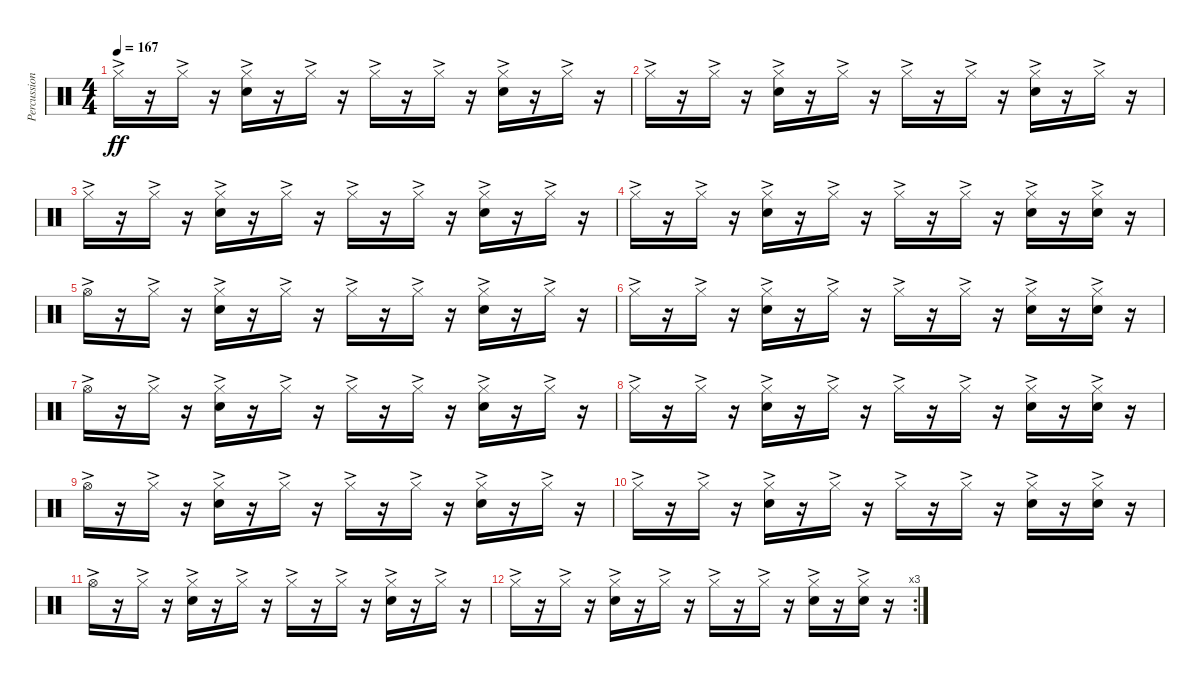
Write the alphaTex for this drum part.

\track ("Percussion" "Percussion") {instrument percussion}
\staff {score}
\articulation defaults
\ts (4 4)
\tempo 167
\clef neutral
\ks c "Hi-Hat (closed)"{ac}.16{dy ff}
r.16 "Hi-Hat (closed)"{ac}.16 r.16 ("Hi-Hat (closed)"{ac} "Snare (hit) 2"{ac}).16 r.16 "Hi-Hat (closed)"{ac}.16 r.16 "Hi-Hat (closed)"{ac}.16 r.16 "Hi-Hat (closed)"{ac}.16 r.16 ("Hi-Hat (closed)"{ac} "Snare (hit) 2"{ac}).16 r.16 "Hi-Hat (closed)"{ac}.16 r.16 |
"Hi-Hat (closed)"{ac}.16 r.16 "Hi-Hat (closed)"{ac}.16 r.16 ("Hi-Hat (closed)"{ac} "Snare (hit) 2"{ac}).16 r.16 "Hi-Hat (closed)"{ac}.16 r.16 "Hi-Hat (closed)"{ac}.16 r.16 "Hi-Hat (closed)"{ac}.16 r.16 ("Hi-Hat (closed)"{ac} "Snare (hit) 2"{ac}).16 r.16 "Hi-Hat (closed)"{ac}.16 r.16 |
"Hi-Hat (closed)"{ac}.16 r.16 "Hi-Hat (closed)"{ac}.16 r.16 ("Hi-Hat (closed)"{ac} "Snare (hit) 2"{ac}).16 r.16 "Hi-Hat (closed)"{ac}.16 r.16 "Hi-Hat (closed)"{ac}.16 r.16 "Hi-Hat (closed)"{ac}.16 r.16 ("Hi-Hat (closed)"{ac} "Snare (hit) 2"{ac}).16 r.16 "Hi-Hat (closed)"{ac}.16 r.16 |
"Hi-Hat (closed)"{ac}.16 r.16 "Hi-Hat (closed)"{ac}.16 r.16 ("Hi-Hat (closed)"{ac} "Snare (hit) 2"{ac}).16 r.16 "Hi-Hat (closed)"{ac}.16 r.16 "Hi-Hat (closed)"{ac}.16 r.16 "Hi-Hat (closed)"{ac}.16 r.16 ("Hi-Hat (closed)"{ac} "Snare (hit) 2"{ac}).16 r.16 ("Hi-Hat (closed)"{ac} "Snare (hit) 2"{ac}).16 r.16 |
"Hi-Hat (open)"{ac}.16 r.16 "Hi-Hat (closed)"{ac}.16 r.16 ("Hi-Hat (closed)"{ac} "Snare (hit) 2"{ac}).16 r.16 "Hi-Hat (closed)"{ac}.16 r.16 "Hi-Hat (closed)"{ac}.16 r.16 "Hi-Hat (closed)"{ac}.16 r.16 ("Hi-Hat (closed)"{ac} "Snare (hit) 2"{ac}).16 r.16 "Hi-Hat (closed)"{ac}.16 r.16 |
"Hi-Hat (closed)"{ac}.16 r.16 "Hi-Hat (closed)"{ac}.16 r.16 ("Hi-Hat (closed)"{ac} "Snare (hit) 2"{ac}).16 r.16 "Hi-Hat (closed)"{ac}.16 r.16 "Hi-Hat (closed)"{ac}.16 r.16 "Hi-Hat (closed)"{ac}.16 r.16 ("Hi-Hat (closed)"{ac} "Snare (hit) 2"{ac}).16 r.16 ("Hi-Hat (closed)"{ac} "Snare (hit) 2"{ac}).16 r.16 |
"Hi-Hat (open)"{ac}.16 r.16 "Hi-Hat (closed)"{ac}.16 r.16 ("Hi-Hat (closed)"{ac} "Snare (hit) 2"{ac}).16 r.16 "Hi-Hat (closed)"{ac}.16 r.16 "Hi-Hat (closed)"{ac}.16 r.16 "Hi-Hat (closed)"{ac}.16 r.16 ("Hi-Hat (closed)"{ac} "Snare (hit) 2"{ac}).16 r.16 "Hi-Hat (closed)"{ac}.16 r.16 |
"Hi-Hat (closed)"{ac}.16 r.16 "Hi-Hat (closed)"{ac}.16 r.16 ("Hi-Hat (closed)"{ac} "Snare (hit) 2"{ac}).16 r.16 "Hi-Hat (closed)"{ac}.16 r.16 "Hi-Hat (closed)"{ac}.16 r.16 "Hi-Hat (closed)"{ac}.16 r.16 ("Hi-Hat (closed)"{ac} "Snare (hit) 2"{ac}).16 r.16 ("Hi-Hat (closed)"{ac} "Snare (hit) 2"{ac}).16 r.16 |
"Hi-Hat (open)"{ac}.16 r.16 "Hi-Hat (closed)"{ac}.16 r.16 ("Hi-Hat (closed)"{ac} "Snare (hit) 2"{ac}).16 r.16 "Hi-Hat (closed)"{ac}.16 r.16 "Hi-Hat (closed)"{ac}.16 r.16 "Hi-Hat (closed)"{ac}.16 r.16 ("Hi-Hat (closed)"{ac} "Snare (hit) 2"{ac}).16 r.16 "Hi-Hat (closed)"{ac}.16 r.16 |
"Hi-Hat (closed)"{ac}.16 r.16 "Hi-Hat (closed)"{ac}.16 r.16 ("Hi-Hat (closed)"{ac} "Snare (hit) 2"{ac}).16 r.16 "Hi-Hat (closed)"{ac}.16 r.16 "Hi-Hat (closed)"{ac}.16 r.16 "Hi-Hat (closed)"{ac}.16 r.16 ("Hi-Hat (closed)"{ac} "Snare (hit) 2"{ac}).16 r.16 ("Hi-Hat (closed)"{ac} "Snare (hit) 2"{ac}).16 r.16 |
"Hi-Hat (open)"{ac}.16 r.16 "Hi-Hat (closed)"{ac}.16 r.16 ("Hi-Hat (closed)"{ac} "Snare (hit) 2"{ac}).16 r.16 "Hi-Hat (closed)"{ac}.16 r.16 "Hi-Hat (closed)"{ac}.16 r.16 "Hi-Hat (closed)"{ac}.16 r.16 ("Hi-Hat (closed)"{ac} "Snare (hit) 2"{ac}).16 r.16 "Hi-Hat (closed)"{ac}.16 r.16 |
\rc 3 "Hi-Hat (closed)"{ac}.16
r.16 "Hi-Hat (closed)"{ac}.16 r.16 ("Hi-Hat (closed)"{ac} "Snare (hit) 2"{ac}).16 r.16 "Hi-Hat (closed)"{ac}.16 r.16 "Hi-Hat (closed)"{ac}.16 r.16 "Hi-Hat (closed)"{ac}.16 r.16 ("Hi-Hat (closed)"{ac} "Snare (hit) 2"{ac}).16 r.16 ("Hi-Hat (closed)"{ac} "Snare (hit) 2"{ac}).16 r.16
